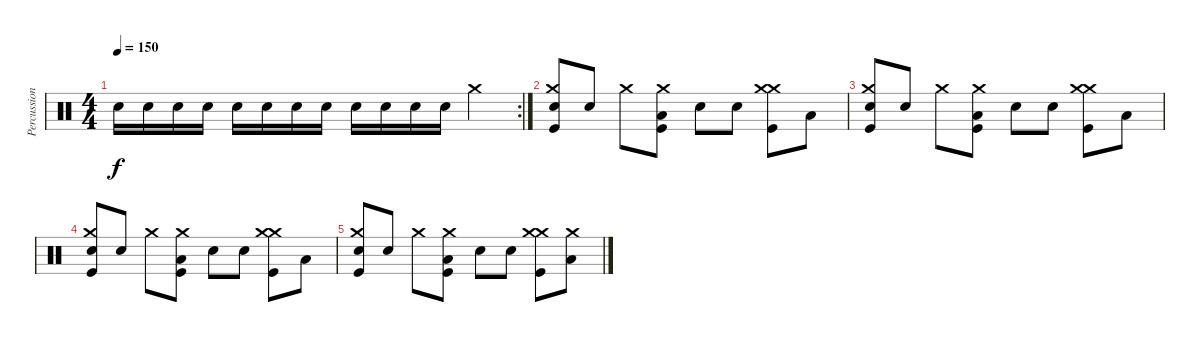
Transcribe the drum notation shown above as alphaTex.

\track ("Percussion" "Percussion") {instrument percussion}
\staff {score}
\articulation defaults
\rc 2
\ts (4 4)
\tempo 150
\clef neutral
\ks c "Electric Snare (hit)".16{dy f} "Electric Snare (hit)".16 "Electric Snare (hit)".16 "Electric Snare (hit)".16 "Electric Snare (hit)".16 "Electric Snare (hit)".16 "Electric Snare (hit)".16 "Electric Snare (hit)".16 "Electric Snare (hit)".16 "Electric Snare (hit)".16 "Electric Snare (hit)".16 "Electric Snare (hit)".16 "Crash medium (hit)".4
|
("Electric Snare (hit)" "Kick (hit)" "Crash medium (hit)").8 "Electric Snare (hit)".8 "Crash medium (hit)".8 ("Low Floor Tom (hit)" "Kick (hit)" "Crash medium (hit)").8 "Electric Snare (hit)".8 "Electric Snare (hit)".8 ("Crash medium (hit)" "Kick (hit)" "Crash medium (hit)").8 "Low Floor Tom (hit)".8 |
("Electric Snare (hit)" "Kick (hit)" "Crash medium (hit)").8 "Electric Snare (hit)".8 "Crash medium (hit)".8 ("Low Floor Tom (hit)" "Kick (hit)" "Crash medium (hit)").8 "Electric Snare (hit)".8 "Electric Snare (hit)".8 ("Crash medium (hit)" "Kick (hit)" "Crash medium (hit)").8 "Low Floor Tom (hit)".8 |
("Electric Snare (hit)" "Kick (hit)" "Crash medium (hit)").8 "Electric Snare (hit)".8 "Crash medium (hit)".8 ("Low Floor Tom (hit)" "Kick (hit)" "Crash medium (hit)").8 "Electric Snare (hit)".8 "Electric Snare (hit)".8 ("Crash medium (hit)" "Kick (hit)" "Crash medium (hit)").8 "Low Floor Tom (hit)".8 |
("Electric Snare (hit)" "Kick (hit)" "Crash medium (hit)").8 "Electric Snare (hit)".8 "Crash medium (hit)".8 ("Low Floor Tom (hit)" "Kick (hit)" "Crash medium (hit)").8 "Electric Snare (hit)".8 "Electric Snare (hit)".8 ("Crash medium (hit)" "Kick (hit)" "Crash medium (hit)").8 ("Low Floor Tom (hit)" "Crash medium (hit)").8
